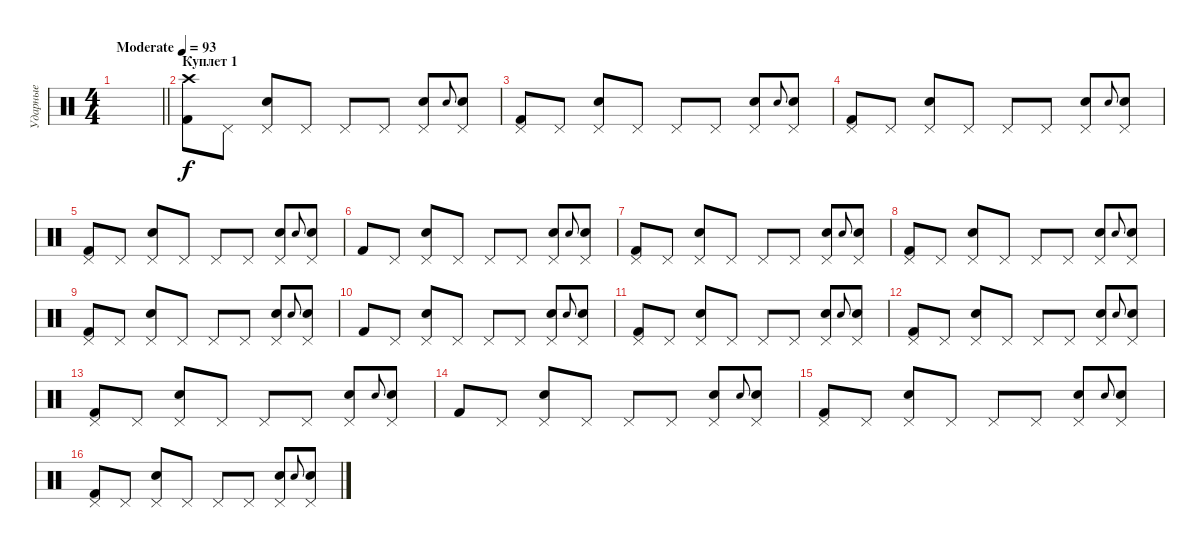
\track ("Ударные" "Ударные") {instrument percussion}
\staff {score}
\articulation defaults
\ts (4 4)
\tempo (93 "Moderate")
\clef neutral
\barLineRight lightlight
\ks c
|
\section ("" "Куплет 1")
("Kick (hit) 2" "Crash high (hit)").8 "Pedal Hi-Hat (hit)".8 ("Pedal Hi-Hat (hit)" "Electric Snare (hit)").8 "Pedal Hi-Hat (hit)".8 "Pedal Hi-Hat (hit)".8 "Pedal Hi-Hat (hit)".8 ("Electric Snare (hit)" "Pedal Hi-Hat (hit)").8 "Electric Snare (hit)".8{gr onbeat} ("Pedal Hi-Hat (hit)" "Electric Snare (hit)").8 |
("Kick (hit) 2" "Pedal Hi-Hat (hit)").8 "Pedal Hi-Hat (hit)".8 ("Pedal Hi-Hat (hit)" "Electric Snare (hit)").8 "Pedal Hi-Hat (hit)".8 "Pedal Hi-Hat (hit)".8 "Pedal Hi-Hat (hit)".8 ("Electric Snare (hit)" "Pedal Hi-Hat (hit)").8 "Electric Snare (hit)".8{gr onbeat} ("Pedal Hi-Hat (hit)" "Electric Snare (hit)").8 |
("Kick (hit) 2" "Pedal Hi-Hat (hit)").8 "Pedal Hi-Hat (hit)".8 ("Pedal Hi-Hat (hit)" "Electric Snare (hit)").8 "Pedal Hi-Hat (hit)".8 "Pedal Hi-Hat (hit)".8 "Pedal Hi-Hat (hit)".8 ("Electric Snare (hit)" "Pedal Hi-Hat (hit)").8 "Electric Snare (hit)".8{gr onbeat} ("Pedal Hi-Hat (hit)" "Electric Snare (hit)").8 |
("Kick (hit) 2" "Pedal Hi-Hat (hit)").8 "Pedal Hi-Hat (hit)".8 ("Pedal Hi-Hat (hit)" "Electric Snare (hit)").8 "Pedal Hi-Hat (hit)".8 "Pedal Hi-Hat (hit)".8 "Pedal Hi-Hat (hit)".8 ("Electric Snare (hit)" "Pedal Hi-Hat (hit)").8 "Electric Snare (hit)".8{gr onbeat} ("Pedal Hi-Hat (hit)" "Electric Snare (hit)").8 |
"Kick (hit) 2".8 "Pedal Hi-Hat (hit)".8 ("Pedal Hi-Hat (hit)" "Electric Snare (hit)").8 "Pedal Hi-Hat (hit)".8 "Pedal Hi-Hat (hit)".8 "Pedal Hi-Hat (hit)".8 ("Electric Snare (hit)" "Pedal Hi-Hat (hit)").8 "Electric Snare (hit)".8{gr onbeat} ("Pedal Hi-Hat (hit)" "Electric Snare (hit)").8 |
("Kick (hit) 2" "Pedal Hi-Hat (hit)").8 "Pedal Hi-Hat (hit)".8 ("Pedal Hi-Hat (hit)" "Electric Snare (hit)").8 "Pedal Hi-Hat (hit)".8 "Pedal Hi-Hat (hit)".8 "Pedal Hi-Hat (hit)".8 ("Electric Snare (hit)" "Pedal Hi-Hat (hit)").8 "Electric Snare (hit)".8{gr onbeat} ("Pedal Hi-Hat (hit)" "Electric Snare (hit)").8 |
("Kick (hit) 2" "Pedal Hi-Hat (hit)").8 "Pedal Hi-Hat (hit)".8 ("Pedal Hi-Hat (hit)" "Electric Snare (hit)").8 "Pedal Hi-Hat (hit)".8 "Pedal Hi-Hat (hit)".8 "Pedal Hi-Hat (hit)".8 ("Electric Snare (hit)" "Pedal Hi-Hat (hit)").8 "Electric Snare (hit)".8{gr onbeat} ("Pedal Hi-Hat (hit)" "Electric Snare (hit)").8 |
("Kick (hit) 2" "Pedal Hi-Hat (hit)").8 "Pedal Hi-Hat (hit)".8 ("Pedal Hi-Hat (hit)" "Electric Snare (hit)").8 "Pedal Hi-Hat (hit)".8 "Pedal Hi-Hat (hit)".8 "Pedal Hi-Hat (hit)".8 ("Electric Snare (hit)" "Pedal Hi-Hat (hit)").8 "Electric Snare (hit)".8{gr onbeat} ("Pedal Hi-Hat (hit)" "Electric Snare (hit)").8 |
"Kick (hit) 2".8 "Pedal Hi-Hat (hit)".8 ("Pedal Hi-Hat (hit)" "Electric Snare (hit)").8 "Pedal Hi-Hat (hit)".8 "Pedal Hi-Hat (hit)".8 "Pedal Hi-Hat (hit)".8 ("Electric Snare (hit)" "Pedal Hi-Hat (hit)").8 "Electric Snare (hit)".8{gr onbeat} ("Pedal Hi-Hat (hit)" "Electric Snare (hit)").8 |
("Kick (hit) 2" "Pedal Hi-Hat (hit)").8 "Pedal Hi-Hat (hit)".8 ("Pedal Hi-Hat (hit)" "Electric Snare (hit)").8 "Pedal Hi-Hat (hit)".8 "Pedal Hi-Hat (hit)".8 "Pedal Hi-Hat (hit)".8 ("Electric Snare (hit)" "Pedal Hi-Hat (hit)").8 "Electric Snare (hit)".8{gr onbeat} ("Pedal Hi-Hat (hit)" "Electric Snare (hit)").8 |
("Kick (hit) 2" "Pedal Hi-Hat (hit)").8 "Pedal Hi-Hat (hit)".8 ("Pedal Hi-Hat (hit)" "Electric Snare (hit)").8 "Pedal Hi-Hat (hit)".8 "Pedal Hi-Hat (hit)".8 "Pedal Hi-Hat (hit)".8 ("Electric Snare (hit)" "Pedal Hi-Hat (hit)").8 "Electric Snare (hit)".8{gr onbeat} ("Pedal Hi-Hat (hit)" "Electric Snare (hit)").8 |
("Kick (hit) 2" "Pedal Hi-Hat (hit)").8 "Pedal Hi-Hat (hit)".8 ("Pedal Hi-Hat (hit)" "Electric Snare (hit)").8 "Pedal Hi-Hat (hit)".8 "Pedal Hi-Hat (hit)".8 "Pedal Hi-Hat (hit)".8 ("Electric Snare (hit)" "Pedal Hi-Hat (hit)").8 "Electric Snare (hit)".8{gr onbeat} ("Pedal Hi-Hat (hit)" "Electric Snare (hit)").8 |
"Kick (hit) 2".8 "Pedal Hi-Hat (hit)".8 ("Pedal Hi-Hat (hit)" "Electric Snare (hit)").8 "Pedal Hi-Hat (hit)".8 "Pedal Hi-Hat (hit)".8 "Pedal Hi-Hat (hit)".8 ("Electric Snare (hit)" "Pedal Hi-Hat (hit)").8 "Electric Snare (hit)".8{gr onbeat} ("Pedal Hi-Hat (hit)" "Electric Snare (hit)").8 |
("Kick (hit) 2" "Pedal Hi-Hat (hit)").8 "Pedal Hi-Hat (hit)".8 ("Pedal Hi-Hat (hit)" "Electric Snare (hit)").8 "Pedal Hi-Hat (hit)".8 "Pedal Hi-Hat (hit)".8 "Pedal Hi-Hat (hit)".8 ("Electric Snare (hit)" "Pedal Hi-Hat (hit)").8 "Electric Snare (hit)".8{gr onbeat} ("Pedal Hi-Hat (hit)" "Electric Snare (hit)").8 |
("Kick (hit) 2" "Pedal Hi-Hat (hit)").8 "Pedal Hi-Hat (hit)".8 ("Pedal Hi-Hat (hit)" "Electric Snare (hit)").8 "Pedal Hi-Hat (hit)".8 "Pedal Hi-Hat (hit)".8 "Pedal Hi-Hat (hit)".8 ("Electric Snare (hit)" "Pedal Hi-Hat (hit)").8 "Electric Snare (hit)".8{gr onbeat} ("Pedal Hi-Hat (hit)" "Electric Snare (hit)").8
